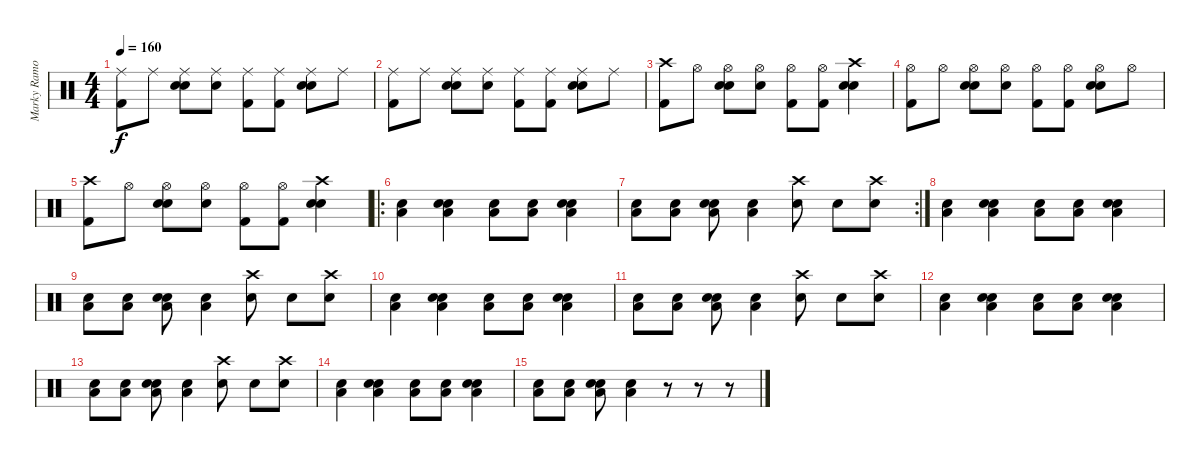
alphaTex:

\track ("Marky Ramone" "Marky Ramo") {instrument percussion}
\staff {score}
\articulation defaults
\ts (4 4)
\tempo 160
\clef neutral
\ks c
("Kick (hit) 2" "Ride (middle)").8{dy f} "Ride (middle)".8 ("Hand Clap (hit)" "Electric Snare (hit)" "Ride (middle)").8 ("Hand Clap (hit)" "Ride (middle)").8 ("Kick (hit) 2" "Ride (middle)").8 ("Kick (hit) 2" "Ride (middle)").8 ("Hand Clap (hit)" "Electric Snare (hit)" "Ride (middle)").8 "Ride (middle)".8 |
("Kick (hit) 2" "Ride (middle)").8 "Ride (middle)".8 ("Hand Clap (hit)" "Electric Snare (hit)" "Ride (middle)").8 ("Hand Clap (hit)" "Ride (middle)").8 ("Kick (hit) 2" "Ride (middle)").8 ("Kick (hit) 2" "Ride (middle)").8 ("Hand Clap (hit)" "Electric Snare (hit)" "Ride (middle)").8 "Ride (middle)".8 |
("Kick (hit) 2" "Crash high (hit)").8 "Hi-Hat (open)".8 ("Hand Clap (hit)" "Electric Snare (hit)" "Hi-Hat (open)").8 ("Hand Clap (hit)" "Hi-Hat (open)").8 ("Kick (hit) 2" "Hi-Hat (open)").8 ("Kick (hit) 2" "Hi-Hat (open)").8 ("Hand Clap (hit)" "Electric Snare (hit)" "Crash high (hit)").4 |
("Kick (hit) 2" "Hi-Hat (open)").8 "Hi-Hat (open)".8 ("Hand Clap (hit)" "Electric Snare (hit)" "Hi-Hat (open)").8 ("Hand Clap (hit)" "Hi-Hat (open)").8 ("Kick (hit) 2" "Hi-Hat (open)").8 ("Kick (hit) 2" "Hi-Hat (open)").8 ("Hand Clap (hit)" "Electric Snare (hit)" "Hi-Hat (open)").8 "Hi-Hat (open)".8 |
("Kick (hit) 2" "Crash high (hit)").8 "Hi-Hat (open)".8 ("Hand Clap (hit)" "Electric Snare (hit)" "Hi-Hat (open)").8 ("Hand Clap (hit)" "Hi-Hat (open)").8 ("Kick (hit) 2" "Hi-Hat (open)").8 ("Kick (hit) 2" "Hi-Hat (open)").8 ("Hand Clap (hit)" "Electric Snare (hit)" "Crash high (hit)").4 |
\ro
("Electric Snare (hit)" "Low Floor Tom (hit)").4 ("Hand Clap (hit)" "Electric Snare (hit)" "Low Floor Tom (hit)").4 ("Electric Snare (hit)" "Low Floor Tom (hit)").8 ("Electric Snare (hit)" "Low Floor Tom (hit)").8 ("Hand Clap (hit)" "Electric Snare (hit)" "Low Floor Tom (hit)").4 |
\rc 2
("Electric Snare (hit)" "Low Floor Tom (hit)").8 ("Electric Snare (hit)" "Low Floor Tom (hit)").8 ("Hand Clap (hit)" "Electric Snare (hit)" "Low Floor Tom (hit)").8 ("Electric Snare (hit)" "Low Floor Tom (hit)").4 ("Crash high (hit)" "Electric Snare (hit)").8 "Hand Clap (hit)".8 ("Crash high (hit)" "Electric Snare (hit)").8 |
("Electric Snare (hit)" "Low Floor Tom (hit)").4 ("Hand Clap (hit)" "Electric Snare (hit)" "Low Floor Tom (hit)").4 ("Electric Snare (hit)" "Low Floor Tom (hit)").8 ("Electric Snare (hit)" "Low Floor Tom (hit)").8 ("Hand Clap (hit)" "Electric Snare (hit)" "Low Floor Tom (hit)").4 |
("Electric Snare (hit)" "Low Floor Tom (hit)").8 ("Electric Snare (hit)" "Low Floor Tom (hit)").8 ("Hand Clap (hit)" "Electric Snare (hit)" "Low Floor Tom (hit)").8 ("Electric Snare (hit)" "Low Floor Tom (hit)").4 ("Crash high (hit)" "Electric Snare (hit)").8 "Hand Clap (hit)".8 ("Crash high (hit)" "Electric Snare (hit)").8 |
("Electric Snare (hit)" "Low Floor Tom (hit)").4 ("Hand Clap (hit)" "Electric Snare (hit)" "Low Floor Tom (hit)").4 ("Electric Snare (hit)" "Low Floor Tom (hit)").8 ("Electric Snare (hit)" "Low Floor Tom (hit)").8 ("Hand Clap (hit)" "Electric Snare (hit)" "Low Floor Tom (hit)").4 |
("Electric Snare (hit)" "Low Floor Tom (hit)").8 ("Electric Snare (hit)" "Low Floor Tom (hit)").8 ("Hand Clap (hit)" "Electric Snare (hit)" "Low Floor Tom (hit)").8 ("Electric Snare (hit)" "Low Floor Tom (hit)").4 ("Crash high (hit)" "Electric Snare (hit)").8 "Hand Clap (hit)".8 ("Crash high (hit)" "Electric Snare (hit)").8 |
("Electric Snare (hit)" "Low Floor Tom (hit)").4 ("Hand Clap (hit)" "Electric Snare (hit)" "Low Floor Tom (hit)").4 ("Electric Snare (hit)" "Low Floor Tom (hit)").8 ("Electric Snare (hit)" "Low Floor Tom (hit)").8 ("Hand Clap (hit)" "Electric Snare (hit)" "Low Floor Tom (hit)").4 |
("Electric Snare (hit)" "Low Floor Tom (hit)").8 ("Electric Snare (hit)" "Low Floor Tom (hit)").8 ("Hand Clap (hit)" "Electric Snare (hit)" "Low Floor Tom (hit)").8 ("Electric Snare (hit)" "Low Floor Tom (hit)").4 ("Crash high (hit)" "Electric Snare (hit)").8 "Hand Clap (hit)".8 ("Crash high (hit)" "Electric Snare (hit)").8 |
("Electric Snare (hit)" "Low Floor Tom (hit)").4 ("Hand Clap (hit)" "Electric Snare (hit)" "Low Floor Tom (hit)").4 ("Electric Snare (hit)" "Low Floor Tom (hit)").8 ("Electric Snare (hit)" "Low Floor Tom (hit)").8 ("Hand Clap (hit)" "Electric Snare (hit)" "Low Floor Tom (hit)").4 |
("Electric Snare (hit)" "Low Floor Tom (hit)").8 ("Electric Snare (hit)" "Low Floor Tom (hit)").8 ("Hand Clap (hit)" "Electric Snare (hit)" "Low Floor Tom (hit)").8 ("Electric Snare (hit)" "Low Floor Tom (hit)").4 r.8 r.8 r.8
